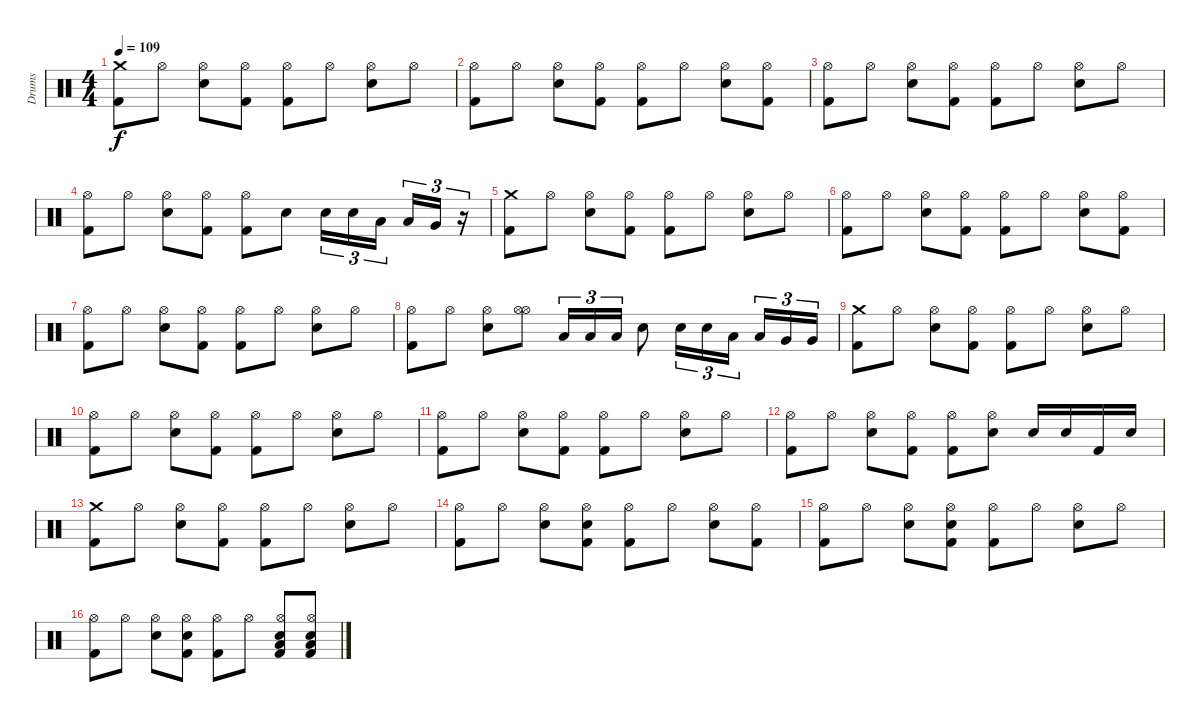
\track ("Drums" "Drums") {instrument percussion}
\staff {score}
\articulation defaults
\ts (4 4)
\tempo 109
\clef neutral
\ks c
("Crash medium (hit)" "Kick (hit) 2").8{dy f} "Hi-Hat (open)".8 ("Hi-Hat (open)" "Electric Snare (hit)").8 ("Hi-Hat (open)" "Kick (hit) 2").8 ("Hi-Hat (open)" "Kick (hit) 2").8 "Hi-Hat (open)".8 ("Hi-Hat (open)" "Electric Snare (hit)").8 "Hi-Hat (open)".8 |
("Hi-Hat (open)" "Kick (hit) 2").8 "Hi-Hat (open)".8 ("Hi-Hat (open)" "Electric Snare (hit)").8 ("Hi-Hat (open)" "Kick (hit) 2").8 ("Hi-Hat (open)" "Kick (hit) 2").8 "Hi-Hat (open)".8 ("Hi-Hat (open)" "Electric Snare (hit)").8 ("Hi-Hat (open)" "Kick (hit) 2").8 |
("Hi-Hat (open)" "Kick (hit) 2").8 "Hi-Hat (open)".8 ("Hi-Hat (open)" "Electric Snare (hit)").8 ("Hi-Hat (open)" "Kick (hit) 2").8 ("Hi-Hat (open)" "Kick (hit) 2").8 "Hi-Hat (open)".8 ("Hi-Hat (open)" "Electric Snare (hit)").8 "Hi-Hat (open)".8 |
("Hi-Hat (open)" "Kick (hit) 2").8 "Hi-Hat (open)".8 ("Hi-Hat (open)" "Electric Snare (hit)").8 ("Hi-Hat (open)" "Kick (hit) 2").8 ("Hi-Hat (open)" "Kick (hit) 2").8 "Electric Snare (hit)".8 "Electric Snare (hit)".16{tu (3 2)} "Electric Snare (hit)".16{tu (3 2)} "Low Tom (hit)".16{tu (3 2)} "Low Tom (hit)".16{tu (3 2)} "Very Low Tom (hit)".16{tu (3 2)} r.16{tu (3 2)} |
("Crash medium (hit)" "Kick (hit) 2").8 "Hi-Hat (open)".8 ("Hi-Hat (open)" "Electric Snare (hit)").8 ("Hi-Hat (open)" "Kick (hit) 2").8 ("Hi-Hat (open)" "Kick (hit) 2").8 "Hi-Hat (open)".8 ("Hi-Hat (open)" "Electric Snare (hit)").8 "Hi-Hat (open)".8 |
("Hi-Hat (open)" "Kick (hit) 2").8 "Hi-Hat (open)".8 ("Hi-Hat (open)" "Electric Snare (hit)").8 ("Hi-Hat (open)" "Kick (hit) 2").8 ("Hi-Hat (open)" "Kick (hit) 2").8 "Hi-Hat (open)".8 ("Hi-Hat (open)" "Electric Snare (hit)").8 ("Hi-Hat (open)" "Kick (hit) 2").8 |
("Hi-Hat (open)" "Kick (hit) 2").8 "Hi-Hat (open)".8 ("Hi-Hat (open)" "Electric Snare (hit)").8 ("Hi-Hat (open)" "Kick (hit) 2").8 ("Hi-Hat (open)" "Kick (hit) 2").8 "Hi-Hat (open)".8 ("Hi-Hat (open)" "Electric Snare (hit)").8 "Hi-Hat (open)".8 |
("Hi-Hat (open)" "Kick (hit) 2").8 "Hi-Hat (open)".8 ("Hi-Hat (open)" "Electric Snare (hit)").8 ("Hi-Hat (open)" "Hi-Hat (open)").8 "Low Tom (hit)".16{tu (3 2)} "Low Tom (hit)".16{tu (3 2)} "Low Tom (hit)".16{tu (3 2)} "Electric Snare (hit)".8 "Electric Snare (hit)".16{tu (3 2)} "Electric Snare (hit)".16{tu (3 2)} "Low Tom (hit)".16{tu (3 2)} "Low Tom (hit)".16{tu (3 2)} "Very Low Tom (hit)".16{tu (3 2)} "Very Low Tom (hit)".16{tu (3 2)} |
("Crash medium (hit)" "Kick (hit) 2").8 "Hi-Hat (open)".8 ("Hi-Hat (open)" "Electric Snare (hit)").8 ("Hi-Hat (open)" "Kick (hit) 2").8 ("Hi-Hat (open)" "Kick (hit) 2").8 "Hi-Hat (open)".8 ("Hi-Hat (open)" "Electric Snare (hit)").8 "Hi-Hat (open)".8 |
("Hi-Hat (open)" "Kick (hit) 2").8 "Hi-Hat (open)".8 ("Hi-Hat (open)" "Electric Snare (hit)").8 ("Hi-Hat (open)" "Kick (hit) 2").8 ("Hi-Hat (open)" "Kick (hit) 2").8 "Hi-Hat (open)".8 ("Hi-Hat (open)" "Electric Snare (hit)").8 "Hi-Hat (open)".8 |
("Hi-Hat (open)" "Kick (hit) 2").8 "Hi-Hat (open)".8 ("Hi-Hat (open)" "Electric Snare (hit)").8 ("Hi-Hat (open)" "Kick (hit) 2").8 ("Hi-Hat (open)" "Kick (hit) 2").8 "Hi-Hat (open)".8 ("Hi-Hat (open)" "Electric Snare (hit)").8 "Hi-Hat (open)".8 |
("Hi-Hat (open)" "Kick (hit) 2").8 "Hi-Hat (open)".8 ("Hi-Hat (open)" "Electric Snare (hit)").8 ("Hi-Hat (open)" "Kick (hit) 2").8 ("Hi-Hat (open)" "Kick (hit) 2").8 ("Hi-Hat (open)" "Electric Snare (hit)").8 "Electric Snare (hit)".16 "Electric Snare (hit)".16 "Kick (hit) 2".16 "Electric Snare (hit)".16 |
("Crash medium (hit)" "Kick (hit) 2").8 "Hi-Hat (open)".8 ("Hi-Hat (open)" "Electric Snare (hit)").8 ("Hi-Hat (open)" "Kick (hit) 2").8 ("Hi-Hat (open)" "Kick (hit) 2").8 "Hi-Hat (open)".8 ("Hi-Hat (open)" "Electric Snare (hit)").8 "Hi-Hat (open)".8 |
("Hi-Hat (open)" "Kick (hit) 2").8 "Hi-Hat (open)".8 ("Hi-Hat (open)" "Electric Snare (hit)").8 ("Hi-Hat (open)" "Electric Snare (hit)" "Kick (hit) 2").8 ("Hi-Hat (open)" "Kick (hit) 2").8 "Hi-Hat (open)".8 ("Hi-Hat (open)" "Electric Snare (hit)").8 ("Hi-Hat (open)" "Kick (hit) 2").8 |
("Hi-Hat (open)" "Kick (hit) 2").8 "Hi-Hat (open)".8 ("Hi-Hat (open)" "Electric Snare (hit)").8 ("Hi-Hat (open)" "Electric Snare (hit)" "Kick (hit) 2").8 ("Hi-Hat (open)" "Kick (hit) 2").8 "Hi-Hat (open)".8 ("Hi-Hat (open)" "Electric Snare (hit)").8 "Hi-Hat (open)".8 |
("Hi-Hat (open)" "Kick (hit) 2").8 "Hi-Hat (open)".8 ("Hi-Hat (open)" "Electric Snare (hit)").8 ("Hi-Hat (open)" "Electric Snare (hit)" "Kick (hit) 2").8 ("Hi-Hat (open)" "Kick (hit) 2").8 "Hi-Hat (open)".8 ("Hi-Hat (open)" "Low Floor Tom (hit)" "Electric Snare (hit)" "Kick (hit) 2").8 ("Hi-Hat (open)" "Low Floor Tom (hit)" "Electric Snare (hit)" "Kick (hit) 2").8
